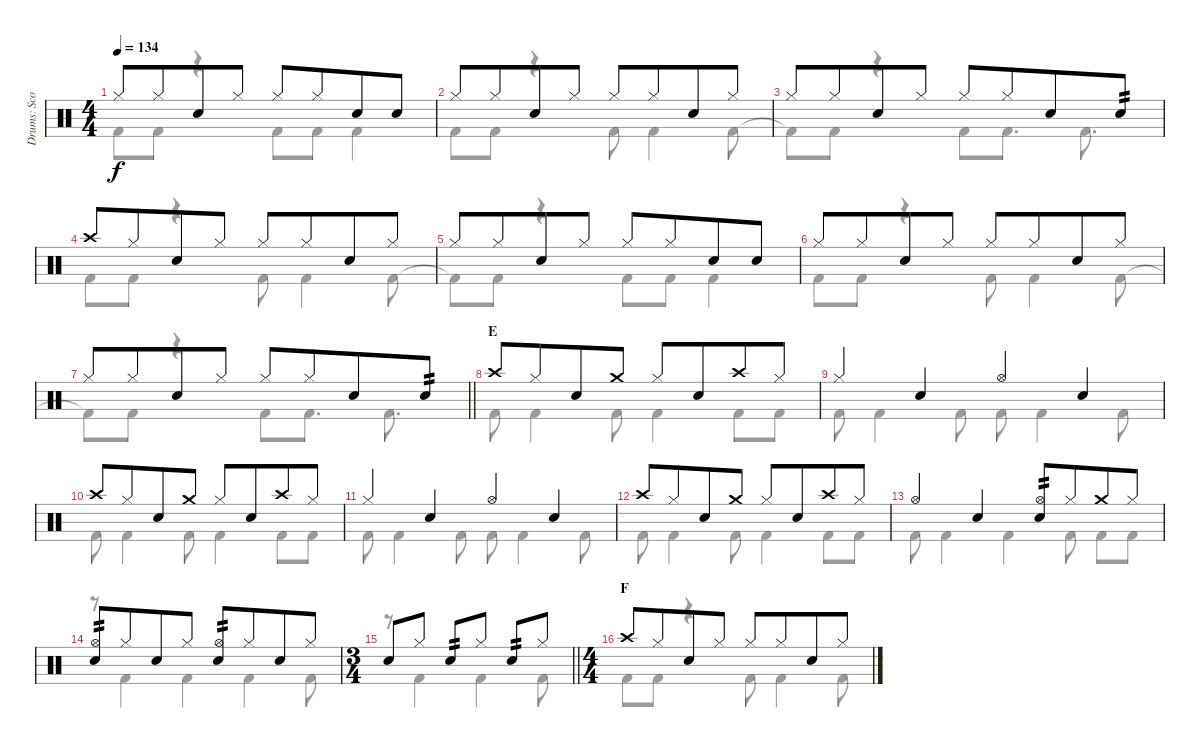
\track ("Drums: Scott" "Drums: Sco") {instrument percussion}
\staff {score}
\articulation defaults
\voice
\ts (4 4)
\tempo 134
\clef neutral
\ks c "Hi-Hat (closed)".8{dy f} "Hi-Hat (closed)".8{beam merge} "Snare (hit) 2".8 "Hi-Hat (closed)".8 "Hi-Hat (closed)".8 "Hi-Hat (closed)".8{beam merge} "Snare (hit) 2".8 "Snare (hit) 2".8
|
"Hi-Hat (closed)".8 "Hi-Hat (closed)".8{beam merge} "Snare (hit) 2".8 "Hi-Hat (closed)".8 "Hi-Hat (closed)".8 "Hi-Hat (closed)".8{beam merge} "Snare (hit) 2".8 "Hi-Hat (closed)".8 |
"Hi-Hat (closed)".8 "Hi-Hat (closed)".8{beam merge} "Snare (hit) 2".8 "Hi-Hat (closed)".8 "Hi-Hat (closed)".8 "Hi-Hat (closed)".8{beam merge} "Snare (hit) 2".8 "Snare (hit) 2".8{tp 2} |
"Crash high (hit)".8 "Hi-Hat (closed)".8{beam merge} "Snare (hit) 2".8 "Hi-Hat (closed)".8 "Hi-Hat (closed)".8 "Hi-Hat (closed)".8{beam merge} "Snare (hit) 2".8 "Hi-Hat (closed)".8 |
"Hi-Hat (closed)".8 "Hi-Hat (closed)".8{beam merge} "Snare (hit) 2".8 "Hi-Hat (closed)".8 "Hi-Hat (closed)".8 "Hi-Hat (closed)".8{beam merge} "Snare (hit) 2".8 "Snare (hit) 2".8 |
"Hi-Hat (closed)".8 "Hi-Hat (closed)".8{beam merge} "Snare (hit) 2".8 "Hi-Hat (closed)".8 "Hi-Hat (closed)".8 "Hi-Hat (closed)".8{beam merge} "Snare (hit) 2".8 "Hi-Hat (closed)".8 |
\barLineRight lightlight "Hi-Hat (closed)".8 "Hi-Hat (closed)".8{beam merge} "Snare (hit) 2".8 "Hi-Hat (closed)".8 "Hi-Hat (closed)".8 "Hi-Hat (closed)".8{beam merge} "Snare (hit) 2".8 "Snare (hit) 2".8{tp 2}
|
\section ("" "E")
"Crash high (hit)".8 "Hi-Hat (closed)".8{beam merge} "Snare (hit) 2".8 "Crash medium (hit)".8 "Hi-Hat (closed)".8 "Snare (hit) 2".8{beam merge} "Crash high (hit)".8 "Hi-Hat (closed)".8 |
"Hi-Hat (closed)".4 "Snare (hit) 2".4 "Hi-Hat (open)".4 "Snare (hit) 2".4 |
"Crash high (hit)".8 "Hi-Hat (closed)".8{beam merge} "Snare (hit) 2".8 "Crash medium (hit)".8 "Hi-Hat (closed)".8 "Snare (hit) 2".8{beam merge} "Crash high (hit)".8 "Hi-Hat (closed)".8 |
"Hi-Hat (closed)".4 "Snare (hit) 2".4 "Hi-Hat (open)".4 "Snare (hit) 2".4 |
"Crash high (hit)".8 "Hi-Hat (closed)".8{beam merge} "Snare (hit) 2".8 "Crash medium (hit)".8 "Hi-Hat (closed)".8 "Snare (hit) 2".8{beam merge} "Crash high (hit)".8 "Hi-Hat (closed)".8 |
"Hi-Hat (open)".4 "Snare (hit) 2".4 ("Hi-Hat (open)" "Snare (hit) 2").8{tp 2} "Hi-Hat (closed)".8{beam merge} "Crash medium (hit)".8 "Hi-Hat (closed)".8 |
("Hi-Hat (open)" "Snare (hit) 2").8{tp 2} "Hi-Hat (closed)".8{beam merge} "Snare (hit) 2".8 "Hi-Hat (closed)".8 ("Hi-Hat (open)" "Snare (hit) 2").8{tp 2} "Hi-Hat (closed)".8{beam merge} "Snare (hit) 2".8 "Hi-Hat (closed)".8 |
\ts (3 4)
\barLineRight lightlight "Snare (hit) 2".8 "Hi-Hat (closed)".8 "Snare (hit) 2".8{tp 2} "Hi-Hat (closed)".8 "Snare (hit) 2".8{tp 2} "Hi-Hat (closed)".8
|
\ts (4 4)
\section ("" "F")
"Crash high (hit)".8 "Hi-Hat (closed)".8{beam merge} "Snare (hit) 2".8 "Hi-Hat (closed)".8 "Hi-Hat (closed)".8 "Hi-Hat (closed)".8{beam merge} "Snare (hit) 2".8 "Hi-Hat (closed)".8
\voice
\clef neutral
\ottava regular
\simile none
\ks c "Kick (hit) 2"{t}.8{dy f} "Kick (hit) 2".8
r.4 "Kick (hit) 2".8 "Kick (hit) 2".8 "Kick (hit) 2".4 |
"Kick (hit) 2".8 "Kick (hit) 2".8 r.4 "Kick (hit) 2".8 "Kick (hit) 2".4 "Kick (hit) 2".8 |
"Kick (hit) 2"{t}.8 "Kick (hit) 2".8 r.4 "Kick (hit) 2".8 "Kick (hit) 2".8{d} "Kick (hit) 2".8{d} |
"Kick (hit) 2".8 "Kick (hit) 2".8 r.4 "Kick (hit) 2".8 "Kick (hit) 2".4 "Kick (hit) 2".8 |
"Kick (hit) 2"{t}.8 "Kick (hit) 2".8 r.4 "Kick (hit) 2".8 "Kick (hit) 2".8 "Kick (hit) 2".4 |
"Kick (hit) 2".8 "Kick (hit) 2".8 r.4 "Kick (hit) 2".8 "Kick (hit) 2".4 "Kick (hit) 2".8 |
\barLineRight lightlight "Kick (hit) 2"{t}.8 "Kick (hit) 2".8
r.4 "Kick (hit) 2".8 "Kick (hit) 2".8{d} "Kick (hit) 2".8{d} |
"Kick (hit) 2".8 "Kick (hit) 2".4 "Kick (hit) 2".8 "Kick (hit) 2".4 "Kick (hit) 2".8 "Kick (hit) 2".8 |
"Kick (hit) 2".8 "Kick (hit) 2".4 "Kick (hit) 2".8 "Kick (hit) 2".8 "Kick (hit) 2".4 "Kick (hit) 2".8 |
"Kick (hit) 2".8 "Kick (hit) 2".4 "Kick (hit) 2".8 "Kick (hit) 2".4 "Kick (hit) 2".8 "Kick (hit) 2".8 |
"Kick (hit) 2".8 "Kick (hit) 2".4 "Kick (hit) 2".8 "Kick (hit) 2".8 "Kick (hit) 2".4 "Kick (hit) 2".8 |
"Kick (hit) 2".8 "Kick (hit) 2".4 "Kick (hit) 2".8 "Kick (hit) 2".4 "Kick (hit) 2".8 "Kick (hit) 2".8 |
"Kick (hit) 2".8 "Kick (hit) 2".4 "Kick (hit) 2".4 "Kick (hit) 2".8 "Kick (hit) 2".8 "Kick (hit) 2".8 |
r.8 "Kick (hit) 2".4 "Kick (hit) 2".4 "Kick (hit) 2".4 "Kick (hit) 2".8 |
\barLineRight lightlight
r.8 "Kick (hit) 2".4 "Kick (hit) 2".4 "Kick (hit) 2".8 |
"Kick (hit) 2".8 "Kick (hit) 2".8 r.4 "Kick (hit) 2".8 "Kick (hit) 2".4 "Kick (hit) 2".8
